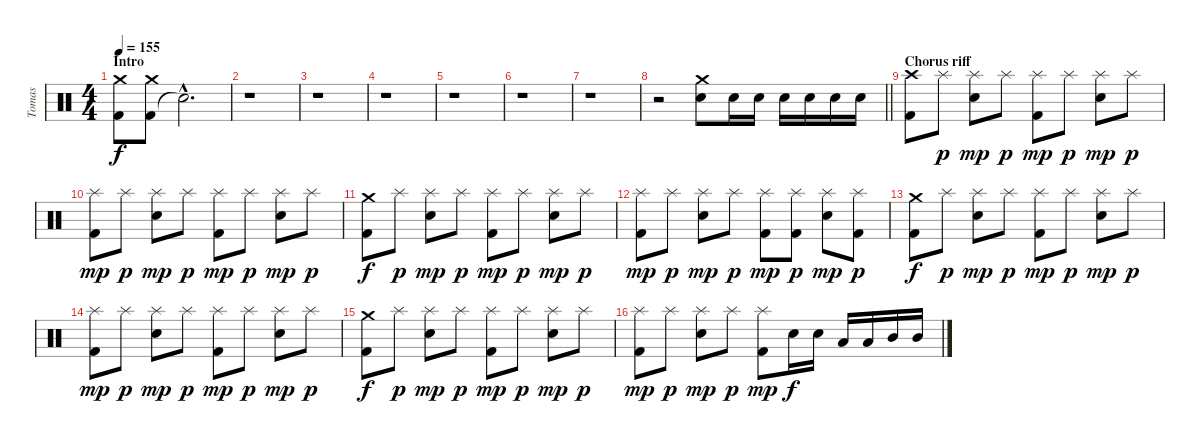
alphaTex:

\track ("Tomas" "Tomas") {instrument percussion}
\staff {score}
\articulation defaults
\ts (4 4)
\section ("" "Intro")
\tempo 155
\clef neutral
\ks c
("Kick (hit) 2" "Crash medium (hit)").8{dy f} ("Kick (hit) 2" "Crash medium (hit)").8 "Snare (hit)"{hac t}.2{d} |
r.1 |
r.1 |
r.1 |
r.1 |
r.1 |
r.1 |
\barLineRight lightlight
r.2 ("Electric Snare (hit)" "Crash medium (hit)").8 "Electric Snare (hit)".16 "Electric Snare (hit)".16 "Electric Snare (hit)".16 "Electric Snare (hit)".16 "Electric Snare (hit)".16 "Electric Snare (hit)".16 |
\section ("" "Chorus riff")
("Kick (hit) 2" "Crash high (hit)").8 "Splash (hit)".8{dy p} ("Electric Snare (hit)" "Splash (hit)").8{dy mp} "Splash (hit)".8{dy p} ("Kick (hit) 2" "Splash (hit)").8{dy mp} "Splash (hit)".8{dy p} ("Electric Snare (hit)" "Splash (hit)").8{dy mp} "Splash (hit)".8{dy p} |
("Kick (hit) 2" "Splash (hit)").8{dy mp} "Splash (hit)".8{dy p} ("Electric Snare (hit)" "Splash (hit)").8{dy mp} "Splash (hit)".8{dy p} ("Kick (hit) 2" "Splash (hit)").8{dy mp} "Splash (hit)".8{dy p} ("Electric Snare (hit)" "Splash (hit)").8{dy mp} "Splash (hit)".8{dy p} |
("Kick (hit) 2" "Crash medium (hit)").8{dy f} "Splash (hit)".8{dy p} ("Electric Snare (hit)" "Splash (hit)").8{dy mp} "Splash (hit)".8{dy p} ("Kick (hit) 2" "Splash (hit)").8{dy mp} "Splash (hit)".8{dy p} ("Electric Snare (hit)" "Splash (hit)").8{dy mp} "Splash (hit)".8{dy p} |
("Kick (hit) 2" "Splash (hit)").8{dy mp} "Splash (hit)".8{dy p} ("Electric Snare (hit)" "Splash (hit)").8{dy mp} "Splash (hit)".8{dy p} ("Kick (hit) 2" "Splash (hit)").8{dy mp} ("Kick (hit) 2" "Splash (hit)").8{dy p} ("Electric Snare (hit)" "Splash (hit)").8{dy mp} ("Kick (hit) 2" "Splash (hit)").8{dy p} |
("Kick (hit) 2" "Crash medium (hit)").8{dy f} "Splash (hit)".8{dy p} ("Electric Snare (hit)" "Splash (hit)").8{dy mp} "Splash (hit)".8{dy p} ("Kick (hit) 2" "Splash (hit)").8{dy mp} "Splash (hit)".8{dy p} ("Electric Snare (hit)" "Splash (hit)").8{dy mp} "Splash (hit)".8{dy p} |
("Kick (hit) 2" "Splash (hit)").8{dy mp} "Splash (hit)".8{dy p} ("Electric Snare (hit)" "Splash (hit)").8{dy mp} "Splash (hit)".8{dy p} ("Kick (hit) 2" "Splash (hit)").8{dy mp} "Splash (hit)".8{dy p} ("Electric Snare (hit)" "Splash (hit)").8{dy mp} "Splash (hit)".8{dy p} |
("Kick (hit) 2" "Crash medium (hit)").8{dy f} "Splash (hit)".8{dy p} ("Electric Snare (hit)" "Splash (hit)").8{dy mp} "Splash (hit)".8{dy p} ("Kick (hit) 2" "Splash (hit)").8{dy mp} "Splash (hit)".8{dy p} ("Electric Snare (hit)" "Splash (hit)").8{dy mp} "Splash (hit)".8{dy p} |
("Kick (hit) 2" "Splash (hit)").8{dy mp} "Splash (hit)".8{dy p} ("Electric Snare (hit)" "Splash (hit)").8{dy mp} "Splash (hit)".8{dy p} ("Kick (hit) 2" "Splash (hit)").8{dy mp} "Electric Snare (hit)".16{dy f} "Electric Snare (hit)".16 "Low Tom (hit)".16 "Low Tom (hit)".16 "Mid Tom (hit)".16 "Mid Tom (hit)".16
